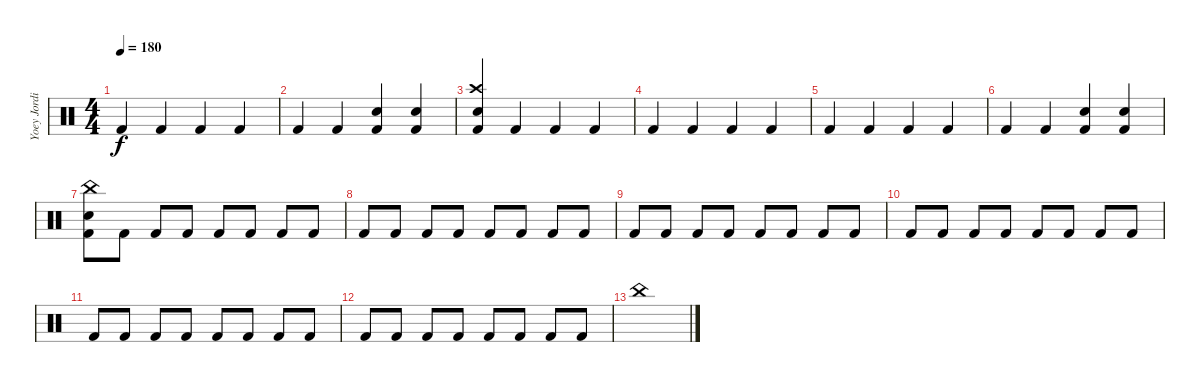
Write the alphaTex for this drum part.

\track ("Yoey Jordison" "Yoey Jordi") {instrument percussion}
\staff {score}
\articulation defaults
\ts (4 4)
\tempo 180
\clef neutral
\ks c "Kick (hit) 2".4{dy f} "Kick (hit) 2".4 "Kick (hit) 2".4 "Kick (hit) 2".4
|
"Kick (hit) 2".4 "Kick (hit) 2".4 ("Kick (hit) 2" "Electric Snare (hit)").4 ("Kick (hit) 2" "Electric Snare (hit)").4 |
("Crash high (hit)" "Kick (hit) 2" "Snare (hit) 2").4 "Kick (hit) 2".4 "Kick (hit) 2".4 "Kick (hit) 2".4 |
"Kick (hit) 2".4 "Kick (hit) 2".4 "Kick (hit) 2".4 "Kick (hit) 2".4 |
"Kick (hit) 2".4 "Kick (hit) 2".4 "Kick (hit) 2".4 "Kick (hit) 2".4 |
"Kick (hit) 2".4 "Kick (hit) 2".4 ("Kick (hit) 2" "Electric Snare (hit)").4 ("Kick (hit) 2" "Electric Snare (hit)").4 |
("China (hit)" "Kick (hit) 2" "Electric Snare (hit)").8{volume 13} "Kick (hit) 2".8 "Kick (hit) 2".8 "Kick (hit) 2".8 "Kick (hit) 2".8 "Kick (hit) 2".8 "Kick (hit) 2".8 "Kick (hit) 2".8 |
"Kick (hit) 2".8 "Kick (hit) 2".8 "Kick (hit) 2".8 "Kick (hit) 2".8 "Kick (hit) 2".8 "Kick (hit) 2".8 "Kick (hit) 2".8 "Kick (hit) 2".8 |
"Kick (hit) 2".8 "Kick (hit) 2".8 "Kick (hit) 2".8 "Kick (hit) 2".8 "Kick (hit) 2".8 "Kick (hit) 2".8 "Kick (hit) 2".8 "Kick (hit) 2".8 |
"Kick (hit) 2".8 "Kick (hit) 2".8 "Kick (hit) 2".8 "Kick (hit) 2".8 "Kick (hit) 2".8 "Kick (hit) 2".8 "Kick (hit) 2".8 "Kick (hit) 2".8 |
"Kick (hit) 2".8 "Kick (hit) 2".8 "Kick (hit) 2".8 "Kick (hit) 2".8 "Kick (hit) 2".8 "Kick (hit) 2".8 "Kick (hit) 2".8 "Kick (hit) 2".8 |
"Kick (hit) 2".8 "Kick (hit) 2".8 "Kick (hit) 2".8 "Kick (hit) 2".8 "Kick (hit) 2".8 "Kick (hit) 2".8 "Kick (hit) 2".8 "Kick (hit) 2".8 |
"China (hit)".1
